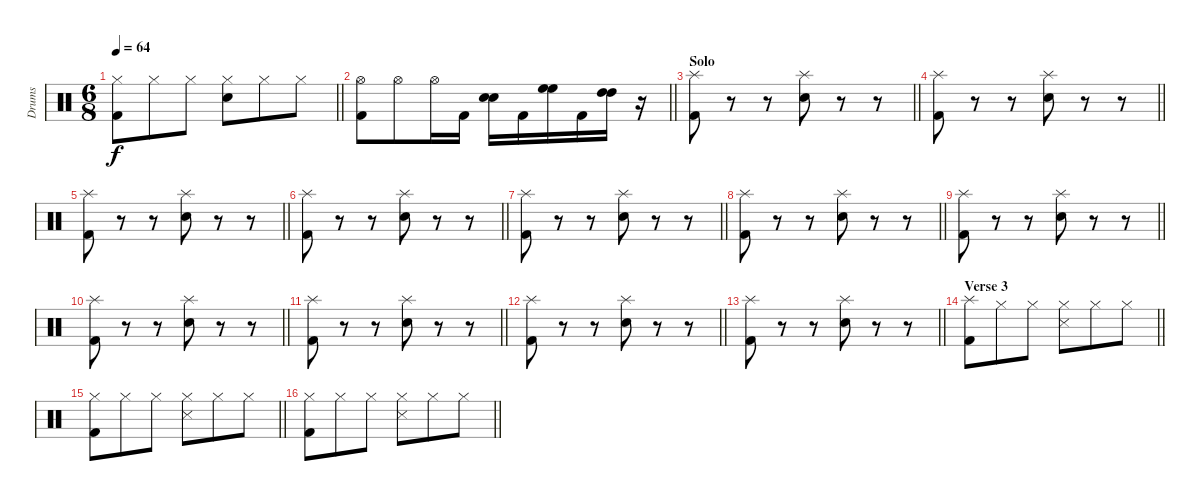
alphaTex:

\track ("Drums" "Drums") {instrument percussion}
\staff {score}
\articulation defaults
\ts (6 8)
\tempo 64
\clef neutral
\barLineRight lightlight
\ks c
("Hi-Hat (closed)" "Kick (hit) 2").8{dy f} "Hi-Hat (closed)".8 "Hi-Hat (closed)".8 ("Hi-Hat (closed)" "Electric Snare (hit)").8 "Hi-Hat (closed)".8 "Hi-Hat (closed)".8 |
\barLineRight lightlight
("Hi-Hat (open)" "Kick (hit) 2").8 "Hi-Hat (open)".8 "Hi-Hat (open)".16 "Kick (hit) 2".16 ("Electric Snare (hit)" "Electric Snare (hit)").16 "Kick (hit) 2".16 ("High Floor Tom (hit)" "High Floor Tom (hit)").16 "Kick (hit) 2".16 ("High Tom (hit)" "High Tom (hit)").16 r.16 |
\section ("" "Solo")
\barLineRight lightlight
("Splash (hit)" "Kick (hit) 2").8 r.8 r.8 ("Splash (hit)" "Electric Snare (hit)").8 r.8 r.8 |
\barLineRight lightlight
("Splash (hit)" "Kick (hit) 2").8 r.8 r.8 ("Splash (hit)" "Electric Snare (hit)").8 r.8 r.8 |
\barLineRight lightlight
("Splash (hit)" "Kick (hit) 2").8 r.8 r.8 ("Splash (hit)" "Electric Snare (hit)").8 r.8 r.8 |
\barLineRight lightlight
("Splash (hit)" "Kick (hit) 2").8 r.8 r.8 ("Splash (hit)" "Electric Snare (hit)").8 r.8 r.8 |
\barLineRight lightlight
("Splash (hit)" "Kick (hit) 2").8 r.8 r.8 ("Splash (hit)" "Electric Snare (hit)").8 r.8 r.8 |
\barLineRight lightlight
("Splash (hit)" "Kick (hit) 2").8 r.8 r.8 ("Splash (hit)" "Electric Snare (hit)").8 r.8 r.8 |
\barLineRight lightlight
("Splash (hit)" "Kick (hit) 2").8 r.8 r.8 ("Splash (hit)" "Electric Snare (hit)").8 r.8 r.8 |
\barLineRight lightlight
("Splash (hit)" "Kick (hit) 2").8 r.8 r.8 ("Splash (hit)" "Electric Snare (hit)").8 r.8 r.8 |
\barLineRight lightlight
("Splash (hit)" "Kick (hit) 2").8 r.8 r.8 ("Splash (hit)" "Electric Snare (hit)").8 r.8 r.8 |
\barLineRight lightlight
("Splash (hit)" "Kick (hit) 2").8 r.8 r.8 ("Splash (hit)" "Electric Snare (hit)").8 r.8 r.8 |
\barLineRight lightlight
("Splash (hit)" "Kick (hit) 2").8 r.8 r.8 ("Splash (hit)" "Electric Snare (hit)").8 r.8 r.8 |
\section ("" "Verse 3")
\barLineRight lightlight
("Splash (hit)" "Kick (hit) 2").8 "Hi-Hat (closed)".8 "Hi-Hat (closed)".8 ("Hi-Hat (closed)" "Snare (side stick) 3").8 "Hi-Hat (closed)".8 "Hi-Hat (closed)".8 |
\barLineRight lightlight
("Hi-Hat (closed)" "Kick (hit) 2").8 "Hi-Hat (closed)".8 "Hi-Hat (closed)".8 ("Hi-Hat (closed)" "Snare (side stick) 3").8 "Hi-Hat (closed)".8 "Hi-Hat (closed)".8 |
\barLineRight lightlight
("Hi-Hat (closed)" "Kick (hit) 2").8 "Hi-Hat (closed)".8 "Hi-Hat (closed)".8 ("Hi-Hat (closed)" "Snare (side stick) 3").8 "Hi-Hat (closed)".8 "Hi-Hat (closed)".8
